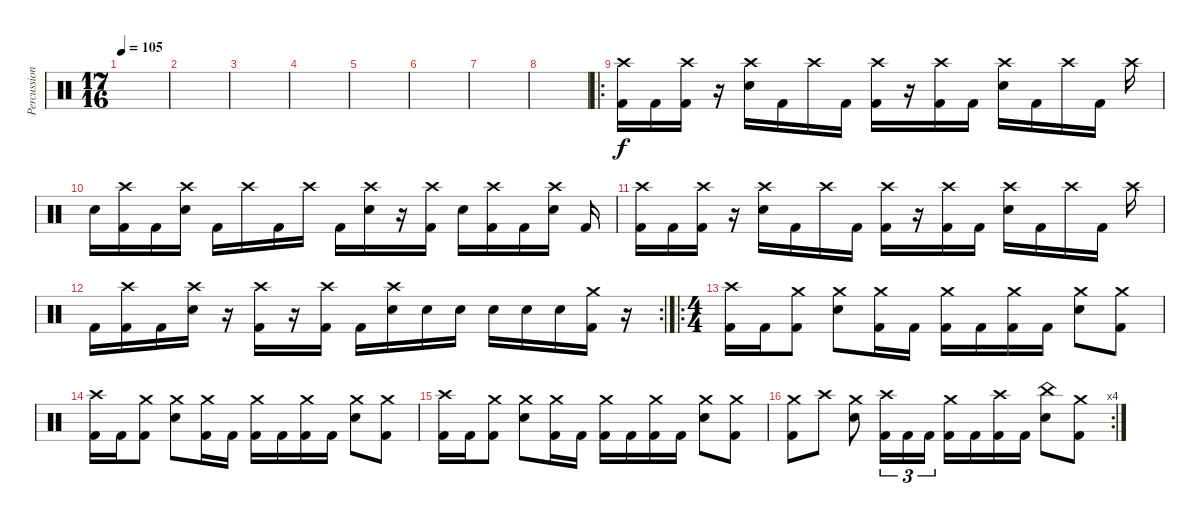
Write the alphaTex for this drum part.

\track ("Percussion" "Percussion") {instrument percussion}
\staff {score}
\articulation defaults
\ts (17 16)
\tempo 105
\clef neutral
\ks c
|
|
|
|
|
|
|
|
\ro
("Crash high (hit)" "Kick (hit) 2").16 "Kick (hit) 2".16 ("Crash high (hit)" "Kick (hit) 2").16 r.16 ("Crash high (hit)" "Snare (hit) 2").16 "Kick (hit) 2".16 "Crash high (hit)".16 "Kick (hit) 2".16 ("Crash high (hit)" "Kick (hit) 2").16 r.16 ("Crash high (hit)" "Kick (hit) 2").16 "Kick (hit) 2".16 ("Crash high (hit)" "Snare (hit) 2").16 "Kick (hit) 2".16 "Crash high (hit)".16 "Kick (hit) 2".16 "Crash high (hit)".16 |
"Snare (hit) 2".16 ("Crash high (hit)" "Kick (hit) 2").16 "Kick (hit) 2".16 ("Crash high (hit)" "Snare (hit) 2").16 "Kick (hit) 2".16 "Crash high (hit)".16 "Kick (hit) 2".16 "Crash high (hit)".16 "Kick (hit) 2".16 ("Crash high (hit)" "Snare (hit) 2").16 r.16 ("Crash high (hit)" "Kick (hit) 2").16 "Snare (hit) 2".16 ("Crash high (hit)" "Kick (hit) 2").16 "Kick (hit) 2".16 ("Crash high (hit)" "Snare (hit) 2").16 "Kick (hit) 2".16 |
("Crash high (hit)" "Kick (hit) 2").16 "Kick (hit) 2".16 ("Crash high (hit)" "Kick (hit) 2").16 r.16 ("Crash high (hit)" "Snare (hit) 2").16 "Kick (hit) 2".16 "Crash high (hit)".16 "Kick (hit) 2".16 ("Crash high (hit)" "Kick (hit) 2").16 r.16 ("Crash high (hit)" "Kick (hit) 2").16 "Kick (hit) 2".16 ("Crash high (hit)" "Snare (hit) 2").16 "Kick (hit) 2".16 "Crash high (hit)".16 "Kick (hit) 2".16 "Crash high (hit)".16 |
\rc 2 "Kick (hit) 2".16
("Crash high (hit)" "Kick (hit) 2").16 "Kick (hit) 2".16 ("Crash high (hit)" "Snare (hit) 2").16 r.16 ("Crash high (hit)" "Kick (hit) 2").16 r.16 ("Crash high (hit)" "Kick (hit) 2").16 "Kick (hit) 2".16 ("Crash high (hit)" "Snare (hit) 2").16 "Snare (hit) 2".16 "Snare (hit) 2".16 "Snare (hit) 2".16 "Snare (hit) 2".16 "Snare (hit) 2".16 ("Crash medium (hit)" "Kick (hit) 2").16 r.16 |
\ro
\ts (4 4)
("Crash high (hit)" "Kick (hit) 2").16 "Kick (hit) 2".16 ("Crash medium (hit)" "Kick (hit) 2").8 ("Crash medium (hit)" "Snare (hit) 2").8 ("Crash medium (hit)" "Kick (hit) 2").16 "Kick (hit) 2".16 ("Crash medium (hit)" "Kick (hit) 2").16 "Kick (hit) 2".16 ("Crash medium (hit)" "Kick (hit) 2").16 "Kick (hit) 2".16 ("Crash medium (hit)" "Snare (hit) 2").8 ("Crash medium (hit)" "Kick (hit) 2").8 |
("Crash high (hit)" "Kick (hit) 2").16 "Kick (hit) 2".16 ("Crash medium (hit)" "Kick (hit) 2").8 ("Crash medium (hit)" "Snare (hit) 2").8 ("Crash medium (hit)" "Kick (hit) 2").16 "Kick (hit) 2".16 ("Crash medium (hit)" "Kick (hit) 2").16 "Kick (hit) 2".16 ("Crash medium (hit)" "Kick (hit) 2").16 "Kick (hit) 2".16 ("Crash medium (hit)" "Snare (hit) 2").8 ("Crash medium (hit)" "Kick (hit) 2").8 |
("Crash high (hit)" "Kick (hit) 2").16 "Kick (hit) 2".16 ("Crash medium (hit)" "Kick (hit) 2").8 ("Crash medium (hit)" "Snare (hit) 2").8 ("Crash medium (hit)" "Kick (hit) 2").16 "Kick (hit) 2".16 ("Crash medium (hit)" "Kick (hit) 2").16 "Kick (hit) 2".16 ("Crash medium (hit)" "Kick (hit) 2").16 "Kick (hit) 2".16 ("Crash medium (hit)" "Snare (hit) 2").8 ("Crash medium (hit)" "Kick (hit) 2").8 |
\rc 4
("Crash medium (hit)" "Kick (hit) 2").8 "Crash high (hit)".8 ("Crash medium (hit)" "Snare (hit) 2").8 ("Crash high (hit)" "Kick (hit) 2").16{tu (3 2)} "Kick (hit) 2".16{tu (3 2)} "Kick (hit) 2".16{tu (3 2)} ("Crash medium (hit)" "Kick (hit) 2").16 "Kick (hit) 2".16 ("Crash high (hit)" "Kick (hit) 2").16 "Kick (hit) 2".16 ("China (hit)" "Snare (hit) 2").8 ("Crash medium (hit)" "Kick (hit) 2").8
